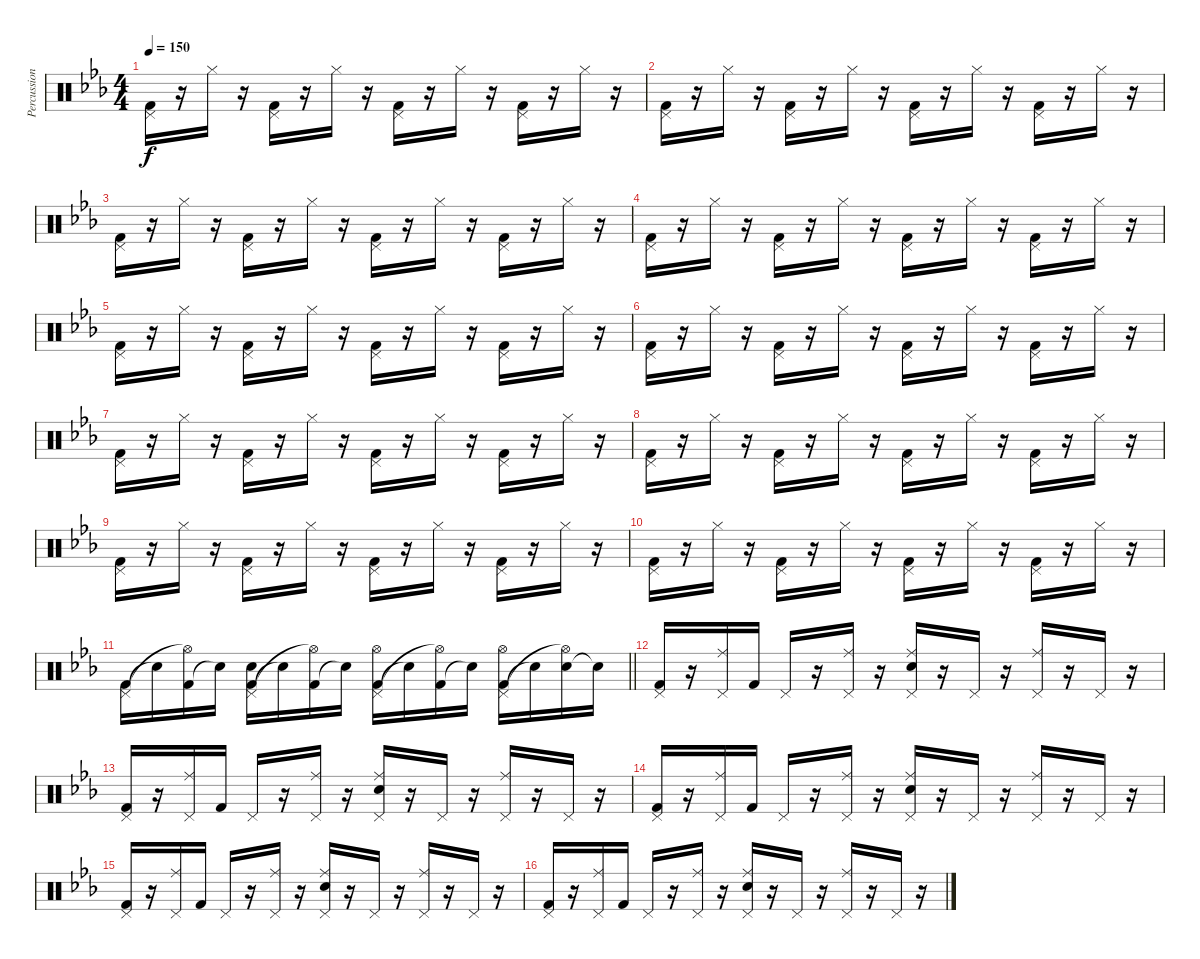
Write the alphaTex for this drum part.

\track ("Percussions" "Percussion") {solo instrument percussion}
\staff {score}
\articulation defaults
\ts (4 4)
\tempo 150
\clef neutral
\ks eb
("Pedal Hi-Hat (hit)" "Kick (hit) 2").16{dy f} r.16 "Hi-Hat (closed)".16 r.16 ("Pedal Hi-Hat (hit)" "Kick (hit) 2").16 r.16 "Hi-Hat (closed)".16 r.16 ("Pedal Hi-Hat (hit)" "Kick (hit) 2").16 r.16 "Hi-Hat (closed)".16 r.16 ("Pedal Hi-Hat (hit)" "Kick (hit) 2").16 r.16 "Hi-Hat (closed)".16 r.16 |
("Pedal Hi-Hat (hit)" "Kick (hit) 2").16 r.16 "Hi-Hat (closed)".16 r.16 ("Pedal Hi-Hat (hit)" "Kick (hit) 2").16 r.16 "Hi-Hat (closed)".16 r.16 ("Pedal Hi-Hat (hit)" "Kick (hit) 2").16 r.16 "Hi-Hat (closed)".16 r.16 ("Pedal Hi-Hat (hit)" "Kick (hit) 2").16 r.16 "Hi-Hat (closed)".16 r.16 |
("Pedal Hi-Hat (hit)" "Kick (hit) 2").16 r.16 "Hi-Hat (closed)".16 r.16 ("Pedal Hi-Hat (hit)" "Kick (hit) 2").16 r.16 "Hi-Hat (closed)".16 r.16 ("Pedal Hi-Hat (hit)" "Kick (hit) 2").16 r.16 "Hi-Hat (closed)".16 r.16 ("Pedal Hi-Hat (hit)" "Kick (hit) 2").16 r.16 "Hi-Hat (closed)".16 r.16 |
("Pedal Hi-Hat (hit)" "Kick (hit) 2").16 r.16 "Hi-Hat (closed)".16 r.16 ("Pedal Hi-Hat (hit)" "Kick (hit) 2").16 r.16 "Hi-Hat (closed)".16 r.16 ("Pedal Hi-Hat (hit)" "Kick (hit) 2").16 r.16 "Hi-Hat (closed)".16 r.16 ("Pedal Hi-Hat (hit)" "Kick (hit) 2").16 r.16 "Hi-Hat (closed)".16 r.16 |
("Pedal Hi-Hat (hit)" "Kick (hit) 2").16 r.16 "Hi-Hat (closed)".16 r.16 ("Pedal Hi-Hat (hit)" "Kick (hit) 2").16 r.16 "Hi-Hat (closed)".16 r.16 ("Pedal Hi-Hat (hit)" "Kick (hit) 2").16 r.16 "Hi-Hat (closed)".16 r.16 ("Pedal Hi-Hat (hit)" "Kick (hit) 2").16 r.16 "Hi-Hat (closed)".16 r.16 |
("Pedal Hi-Hat (hit)" "Kick (hit) 2").16 r.16 "Hi-Hat (closed)".16 r.16 ("Pedal Hi-Hat (hit)" "Kick (hit) 2").16 r.16 "Hi-Hat (closed)".16 r.16 ("Pedal Hi-Hat (hit)" "Kick (hit) 2").16 r.16 "Hi-Hat (closed)".16 r.16 ("Pedal Hi-Hat (hit)" "Kick (hit) 2").16 r.16 "Hi-Hat (closed)".16 r.16 |
("Pedal Hi-Hat (hit)" "Kick (hit) 2").16 r.16 "Hi-Hat (closed)".16 r.16 ("Pedal Hi-Hat (hit)" "Kick (hit) 2").16 r.16 "Hi-Hat (closed)".16 r.16 ("Pedal Hi-Hat (hit)" "Kick (hit) 2").16 r.16 "Hi-Hat (closed)".16 r.16 ("Pedal Hi-Hat (hit)" "Kick (hit) 2").16 r.16 "Hi-Hat (closed)".16 r.16 |
("Pedal Hi-Hat (hit)" "Kick (hit) 2").16 r.16 "Hi-Hat (closed)".16 r.16 ("Pedal Hi-Hat (hit)" "Kick (hit) 2").16 r.16 "Hi-Hat (closed)".16 r.16 ("Pedal Hi-Hat (hit)" "Kick (hit) 2").16 r.16 "Hi-Hat (closed)".16 r.16 ("Pedal Hi-Hat (hit)" "Kick (hit) 2").16 r.16 "Hi-Hat (closed)".16 r.16 |
("Pedal Hi-Hat (hit)" "Kick (hit) 2").16 r.16 "Hi-Hat (closed)".16 r.16 ("Pedal Hi-Hat (hit)" "Kick (hit) 2").16 r.16 "Hi-Hat (closed)".16 r.16 ("Pedal Hi-Hat (hit)" "Kick (hit) 2").16 r.16 "Hi-Hat (closed)".16 r.16 ("Pedal Hi-Hat (hit)" "Kick (hit) 2").16 r.16 "Hi-Hat (closed)".16 r.16 |
("Pedal Hi-Hat (hit)" "Kick (hit) 2").16 r.16 "Hi-Hat (closed)".16 r.16 ("Pedal Hi-Hat (hit)" "Kick (hit) 2").16 r.16 "Hi-Hat (closed)".16 r.16 ("Pedal Hi-Hat (hit)" "Kick (hit) 2").16 r.16 "Hi-Hat (closed)".16 r.16 ("Pedal Hi-Hat (hit)" "Kick (hit) 2").16 r.16 "Hi-Hat (closed)".16 r.16 |
\barLineRight lightlight
("Pedal Hi-Hat (hit)" "Kick (hit) 2").16 "Snare (hit)"{t}.16 ("Kick (hit) 2" "Hi-Hat (open)"{t}).16 "Snare (hit)"{t}.16 ("Pedal Hi-Hat (hit)" "Kick (hit) 2" "Snare (hit)").16 "Snare (hit)"{t}.16 ("Kick (hit) 2" "Hi-Hat (open)"{t}).16 "Snare (hit)"{t}.16 ("Pedal Hi-Hat (hit)" "Kick (hit) 2" "Hi-Hat (open)").16 "Snare (hit)"{t}.16 ("Kick (hit) 2" "Hi-Hat (open)"{t}).16 "Snare (hit)"{t}.16 ("Pedal Hi-Hat (hit)" "Kick (hit) 2" "Hi-Hat (open)").16 "Snare (hit)"{t}.16 ("Snare (hit) 2" "Hi-Hat (open)"{t}).16 "Snare (hit)"{t}.16 |
("Pedal Hi-Hat (hit)" "Kick (hit) 2").16 r.16 ("Pedal Hi-Hat (hit)" "Ride (middle)").16 "Kick (hit) 2".16 "Pedal Hi-Hat (hit)".16 r.16 ("Pedal Hi-Hat (hit)" "Ride (middle)").16 r.16 ("Pedal Hi-Hat (hit)" "Ride (middle)" "Snare (hit) 2").16 r.16 "Pedal Hi-Hat (hit)".16 r.16 ("Pedal Hi-Hat (hit)" "Ride (middle)").16 r.16 "Pedal Hi-Hat (hit)".16 r.16 |
("Pedal Hi-Hat (hit)" "Kick (hit) 2").16 r.16 ("Pedal Hi-Hat (hit)" "Ride (middle)").16 "Kick (hit) 2".16 "Pedal Hi-Hat (hit)".16 r.16 ("Pedal Hi-Hat (hit)" "Ride (middle)").16 r.16 ("Pedal Hi-Hat (hit)" "Ride (middle)" "Snare (hit) 2").16 r.16 "Pedal Hi-Hat (hit)".16 r.16 ("Pedal Hi-Hat (hit)" "Ride (middle)").16 r.16 "Pedal Hi-Hat (hit)".16 r.16 |
("Pedal Hi-Hat (hit)" "Kick (hit) 2").16 r.16 ("Pedal Hi-Hat (hit)" "Ride (middle)").16 "Kick (hit) 2".16 "Pedal Hi-Hat (hit)".16 r.16 ("Pedal Hi-Hat (hit)" "Ride (middle)").16 r.16 ("Pedal Hi-Hat (hit)" "Ride (middle)" "Snare (hit) 2").16 r.16 "Pedal Hi-Hat (hit)".16 r.16 ("Pedal Hi-Hat (hit)" "Ride (middle)").16 r.16 "Pedal Hi-Hat (hit)".16 r.16 |
("Pedal Hi-Hat (hit)" "Kick (hit) 2").16 r.16 ("Pedal Hi-Hat (hit)" "Ride (middle)").16 "Kick (hit) 2".16 "Pedal Hi-Hat (hit)".16 r.16 ("Pedal Hi-Hat (hit)" "Ride (middle)").16 r.16 ("Pedal Hi-Hat (hit)" "Ride (middle)" "Snare (hit) 2").16 r.16 "Pedal Hi-Hat (hit)".16 r.16 ("Pedal Hi-Hat (hit)" "Ride (middle)").16 r.16 "Pedal Hi-Hat (hit)".16 r.16 |
("Pedal Hi-Hat (hit)" "Kick (hit) 2").16 r.16 ("Pedal Hi-Hat (hit)" "Ride (middle)").16 "Kick (hit) 2".16 "Pedal Hi-Hat (hit)".16 r.16 ("Pedal Hi-Hat (hit)" "Ride (middle)").16 r.16 ("Pedal Hi-Hat (hit)" "Ride (middle)" "Snare (hit) 2").16 r.16 "Pedal Hi-Hat (hit)".16 r.16 ("Pedal Hi-Hat (hit)" "Ride (middle)").16 r.16 "Pedal Hi-Hat (hit)".16 r.16
